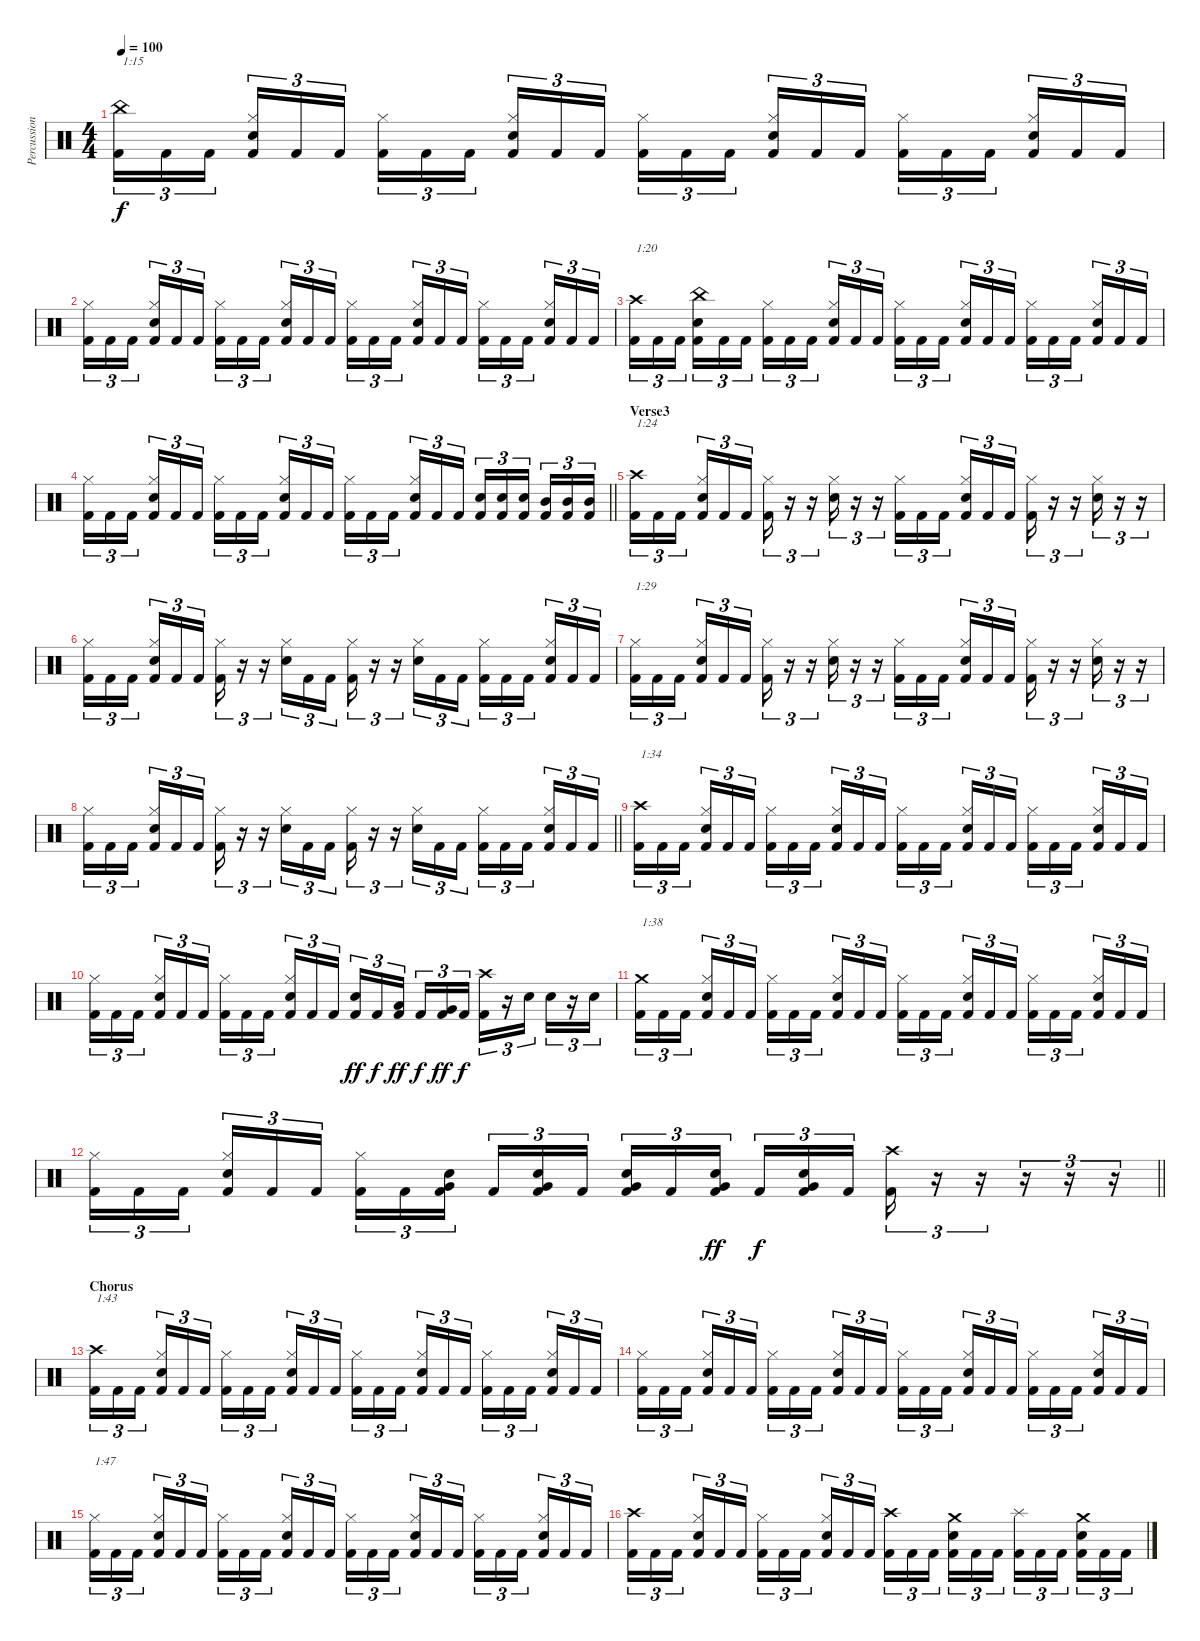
\track ("Percussion" "Percussion") {instrument percussion}
\staff {score}
\articulation defaults
\ts (4 4)
\tempo 100
\clef neutral
\ks c
("China (hit)" "Kick (hit) 2").16{tu (3 2) txt "1:15" dy f} "Kick (hit) 2".16{tu (3 2)} "Kick (hit) 2".16{tu (3 2) beam splitsecondary} ("Hi-Hat (closed)" "Snare (hit) 2" "Kick (hit) 2").16{tu (3 2)} "Kick (hit) 2".16{tu (3 2)} "Kick (hit) 2".16{tu (3 2)} ("Hi-Hat (closed)" "Kick (hit) 2").16{tu (3 2)} "Kick (hit) 2".16{tu (3 2)} "Kick (hit) 2".16{tu (3 2) beam splitsecondary} ("Hi-Hat (closed)" "Snare (hit) 2" "Kick (hit) 2").16{tu (3 2)} "Kick (hit) 2".16{tu (3 2)} "Kick (hit) 2".16{tu (3 2)} ("Hi-Hat (closed)" "Kick (hit) 2").16{tu (3 2)} "Kick (hit) 2".16{tu (3 2)} "Kick (hit) 2".16{tu (3 2) beam splitsecondary} ("Hi-Hat (closed)" "Snare (hit) 2" "Kick (hit) 2").16{tu (3 2)} "Kick (hit) 2".16{tu (3 2)} "Kick (hit) 2".16{tu (3 2)} ("Hi-Hat (closed)" "Kick (hit) 2").16{tu (3 2)} "Kick (hit) 2".16{tu (3 2)} "Kick (hit) 2".16{tu (3 2) beam splitsecondary} ("Hi-Hat (closed)" "Snare (hit) 2" "Kick (hit) 2").16{tu (3 2)} "Kick (hit) 2".16{tu (3 2)} "Kick (hit) 2".16{tu (3 2)} |
("Hi-Hat (closed)" "Kick (hit) 2").16{tu (3 2)} "Kick (hit) 2".16{tu (3 2)} "Kick (hit) 2".16{tu (3 2) beam splitsecondary} ("Hi-Hat (closed)" "Snare (hit) 2" "Kick (hit) 2").16{tu (3 2)} "Kick (hit) 2".16{tu (3 2)} "Kick (hit) 2".16{tu (3 2)} ("Hi-Hat (closed)" "Kick (hit) 2").16{tu (3 2)} "Kick (hit) 2".16{tu (3 2)} "Kick (hit) 2".16{tu (3 2) beam splitsecondary} ("Hi-Hat (closed)" "Snare (hit) 2" "Kick (hit) 2").16{tu (3 2)} "Kick (hit) 2".16{tu (3 2)} "Kick (hit) 2".16{tu (3 2)} ("Hi-Hat (closed)" "Kick (hit) 2").16{tu (3 2)} "Kick (hit) 2".16{tu (3 2)} "Kick (hit) 2".16{tu (3 2) beam splitsecondary} ("Hi-Hat (closed)" "Snare (hit) 2" "Kick (hit) 2").16{tu (3 2)} "Kick (hit) 2".16{tu (3 2)} "Kick (hit) 2".16{tu (3 2)} ("Hi-Hat (closed)" "Kick (hit) 2").16{tu (3 2)} "Kick (hit) 2".16{tu (3 2)} "Kick (hit) 2".16{tu (3 2) beam splitsecondary} ("Hi-Hat (closed)" "Snare (hit) 2" "Kick (hit) 2").16{tu (3 2)} "Kick (hit) 2".16{tu (3 2)} "Kick (hit) 2".16{tu (3 2)} |
("Crash high (hit)" "Kick (hit) 2").16{tu (3 2) txt "1:20"} "Kick (hit) 2".16{tu (3 2)} "Kick (hit) 2".16{tu (3 2) beam splitsecondary} ("China (hit)" "Snare (hit) 2" "Kick (hit) 2").16{tu (3 2)} "Kick (hit) 2".16{tu (3 2)} "Kick (hit) 2".16{tu (3 2)} ("Hi-Hat (closed)" "Kick (hit) 2").16{tu (3 2)} "Kick (hit) 2".16{tu (3 2)} "Kick (hit) 2".16{tu (3 2) beam splitsecondary} ("Hi-Hat (closed)" "Snare (hit) 2" "Kick (hit) 2").16{tu (3 2)} "Kick (hit) 2".16{tu (3 2)} "Kick (hit) 2".16{tu (3 2)} ("Hi-Hat (closed)" "Kick (hit) 2").16{tu (3 2)} "Kick (hit) 2".16{tu (3 2)} "Kick (hit) 2".16{tu (3 2) beam splitsecondary} ("Hi-Hat (closed)" "Snare (hit) 2" "Kick (hit) 2").16{tu (3 2)} "Kick (hit) 2".16{tu (3 2)} "Kick (hit) 2".16{tu (3 2)} ("Hi-Hat (closed)" "Kick (hit) 2").16{tu (3 2)} "Kick (hit) 2".16{tu (3 2)} "Kick (hit) 2".16{tu (3 2) beam splitsecondary} ("Hi-Hat (closed)" "Snare (hit) 2" "Kick (hit) 2").16{tu (3 2)} "Kick (hit) 2".16{tu (3 2)} "Kick (hit) 2".16{tu (3 2)} |
\barLineRight lightlight
("Hi-Hat (closed)" "Kick (hit) 2").16{tu (3 2)} "Kick (hit) 2".16{tu (3 2)} "Kick (hit) 2".16{tu (3 2) beam splitsecondary} ("Hi-Hat (closed)" "Snare (hit) 2" "Kick (hit) 2").16{tu (3 2)} "Kick (hit) 2".16{tu (3 2)} "Kick (hit) 2".16{tu (3 2)} ("Hi-Hat (closed)" "Kick (hit) 2").16{tu (3 2)} "Kick (hit) 2".16{tu (3 2)} "Kick (hit) 2".16{tu (3 2) beam splitsecondary} ("Hi-Hat (closed)" "Snare (hit) 2" "Kick (hit) 2").16{tu (3 2)} "Kick (hit) 2".16{tu (3 2)} "Kick (hit) 2".16{tu (3 2)} ("Hi-Hat (closed)" "Kick (hit) 2").16{tu (3 2)} "Kick (hit) 2".16{tu (3 2)} "Kick (hit) 2".16{tu (3 2) beam splitsecondary} ("Hi-Hat (closed)" "Snare (hit) 2" "Kick (hit) 2").16{tu (3 2)} "Kick (hit) 2".16{tu (3 2)} "Kick (hit) 2".16{tu (3 2)} ("Snare (hit) 2" "Kick (hit) 2").16{tu (3 2)} ("Snare (hit) 2" "Kick (hit) 2").16{tu (3 2)} ("Snare (hit) 2" "Kick (hit) 2").16{tu (3 2) beam splitsecondary} ("Mid Tom (hit)" "Kick (hit) 2").16{tu (3 2)} ("Mid Tom (hit)" "Kick (hit) 2").16{tu (3 2)} ("Mid Tom (hit)" "Kick (hit) 2").16{tu (3 2)} |
\section ("" "Verse3")
("Crash high (hit)" "Kick (hit) 2").16{tu (3 2) txt "1:24"} "Kick (hit) 2".16{tu (3 2)} "Kick (hit) 2".16{tu (3 2) beam splitsecondary} ("Hi-Hat (closed)" "Snare (hit) 2" "Kick (hit) 2").16{tu (3 2)} "Kick (hit) 2".16{tu (3 2)} "Kick (hit) 2".16{tu (3 2)} ("Hi-Hat (closed)" "Kick (hit) 2").16{tu (3 2)} r.16{tu (3 2)} r.16{tu (3 2)} ("Hi-Hat (closed)" "Snare (hit) 2").16{tu (3 2)} r.16{tu (3 2)} r.16{tu (3 2)} ("Hi-Hat (closed)" "Kick (hit) 2").16{tu (3 2)} "Kick (hit) 2".16{tu (3 2)} "Kick (hit) 2".16{tu (3 2) beam splitsecondary} ("Hi-Hat (closed)" "Snare (hit) 2" "Kick (hit) 2").16{tu (3 2)} "Kick (hit) 2".16{tu (3 2)} "Kick (hit) 2".16{tu (3 2)} ("Hi-Hat (closed)" "Kick (hit) 2").16{tu (3 2)} r.16{tu (3 2)} r.16{tu (3 2)} ("Hi-Hat (closed)" "Snare (hit) 2").16{tu (3 2)} r.16{tu (3 2)} r.16{tu (3 2)} |
("Hi-Hat (closed)" "Kick (hit) 2").16{tu (3 2)} "Kick (hit) 2".16{tu (3 2)} "Kick (hit) 2".16{tu (3 2) beam splitsecondary} ("Hi-Hat (closed)" "Snare (hit) 2" "Kick (hit) 2").16{tu (3 2)} "Kick (hit) 2".16{tu (3 2)} "Kick (hit) 2".16{tu (3 2)} ("Hi-Hat (closed)" "Kick (hit) 2").16{tu (3 2)} r.16{tu (3 2)} r.16{tu (3 2)} ("Hi-Hat (closed)" "Snare (hit) 2").16{tu (3 2)} "Kick (hit) 2".16{tu (3 2)} "Kick (hit) 2".16{tu (3 2)} ("Hi-Hat (closed)" "Kick (hit) 2").16{tu (3 2)} r.16{tu (3 2)} r.16{tu (3 2)} ("Hi-Hat (closed)" "Snare (hit) 2").16{tu (3 2)} "Kick (hit) 2".16{tu (3 2)} "Kick (hit) 2".16{tu (3 2)} ("Hi-Hat (closed)" "Kick (hit) 2").16{tu (3 2)} "Kick (hit) 2".16{tu (3 2)} "Kick (hit) 2".16{tu (3 2) beam splitsecondary} ("Hi-Hat (closed)" "Snare (hit) 2" "Kick (hit) 2").16{tu (3 2)} "Kick (hit) 2".16{tu (3 2)} "Kick (hit) 2".16{tu (3 2)} |
("Hi-Hat (closed)" "Kick (hit) 2").16{tu (3 2) txt "1:29"} "Kick (hit) 2".16{tu (3 2)} "Kick (hit) 2".16{tu (3 2) beam splitsecondary} ("Hi-Hat (closed)" "Snare (hit) 2" "Kick (hit) 2").16{tu (3 2)} "Kick (hit) 2".16{tu (3 2)} "Kick (hit) 2".16{tu (3 2)} ("Hi-Hat (closed)" "Kick (hit) 2").16{tu (3 2)} r.16{tu (3 2)} r.16{tu (3 2)} ("Hi-Hat (closed)" "Snare (hit) 2").16{tu (3 2)} r.16{tu (3 2)} r.16{tu (3 2)} ("Hi-Hat (closed)" "Kick (hit) 2").16{tu (3 2)} "Kick (hit) 2".16{tu (3 2)} "Kick (hit) 2".16{tu (3 2) beam splitsecondary} ("Hi-Hat (closed)" "Snare (hit) 2" "Kick (hit) 2").16{tu (3 2)} "Kick (hit) 2".16{tu (3 2)} "Kick (hit) 2".16{tu (3 2)} ("Hi-Hat (closed)" "Kick (hit) 2").16{tu (3 2)} r.16{tu (3 2)} r.16{tu (3 2)} ("Hi-Hat (closed)" "Snare (hit) 2").16{tu (3 2)} r.16{tu (3 2)} r.16{tu (3 2)} |
\barLineRight lightlight
("Hi-Hat (closed)" "Kick (hit) 2").16{tu (3 2)} "Kick (hit) 2".16{tu (3 2)} "Kick (hit) 2".16{tu (3 2) beam splitsecondary} ("Hi-Hat (closed)" "Snare (hit) 2" "Kick (hit) 2").16{tu (3 2)} "Kick (hit) 2".16{tu (3 2)} "Kick (hit) 2".16{tu (3 2)} ("Hi-Hat (closed)" "Kick (hit) 2").16{tu (3 2)} r.16{tu (3 2)} r.16{tu (3 2)} ("Hi-Hat (closed)" "Snare (hit) 2").16{tu (3 2)} "Kick (hit) 2".16{tu (3 2)} "Kick (hit) 2".16{tu (3 2)} ("Hi-Hat (closed)" "Kick (hit) 2").16{tu (3 2)} r.16{tu (3 2)} r.16{tu (3 2)} ("Hi-Hat (closed)" "Snare (hit) 2").16{tu (3 2)} "Kick (hit) 2".16{tu (3 2)} "Kick (hit) 2".16{tu (3 2)} ("Hi-Hat (closed)" "Kick (hit) 2").16{tu (3 2)} "Kick (hit) 2".16{tu (3 2)} "Kick (hit) 2".16{tu (3 2) beam splitsecondary} ("Hi-Hat (closed)" "Snare (hit) 2" "Kick (hit) 2").16{tu (3 2)} "Kick (hit) 2".16{tu (3 2)} "Kick (hit) 2".16{tu (3 2)} |
("Crash high (hit)" "Kick (hit) 2").16{tu (3 2) txt "1:34"} "Kick (hit) 2".16{tu (3 2)} "Kick (hit) 2".16{tu (3 2) beam splitsecondary} ("Hi-Hat (closed)" "Snare (hit) 2" "Kick (hit) 2").16{tu (3 2)} "Kick (hit) 2".16{tu (3 2)} "Kick (hit) 2".16{tu (3 2)} ("Hi-Hat (closed)" "Kick (hit) 2").16{tu (3 2)} "Kick (hit) 2".16{tu (3 2)} "Kick (hit) 2".16{tu (3 2) beam splitsecondary} ("Hi-Hat (closed)" "Snare (hit) 2" "Kick (hit) 2").16{tu (3 2)} "Kick (hit) 2".16{tu (3 2)} "Kick (hit) 2".16{tu (3 2)} ("Hi-Hat (closed)" "Kick (hit) 2").16{tu (3 2)} "Kick (hit) 2".16{tu (3 2)} "Kick (hit) 2".16{tu (3 2) beam splitsecondary} ("Hi-Hat (closed)" "Snare (hit) 2" "Kick (hit) 2").16{tu (3 2)} "Kick (hit) 2".16{tu (3 2)} "Kick (hit) 2".16{tu (3 2)} ("Hi-Hat (closed)" "Kick (hit) 2").16{tu (3 2)} "Kick (hit) 2".16{tu (3 2)} "Kick (hit) 2".16{tu (3 2) beam splitsecondary} ("Hi-Hat (closed)" "Snare (hit) 2" "Kick (hit) 2").16{tu (3 2)} "Kick (hit) 2".16{tu (3 2)} "Kick (hit) 2".16{tu (3 2)} |
("Hi-Hat (closed)" "Kick (hit) 2").16{tu (3 2)} "Kick (hit) 2".16{tu (3 2)} "Kick (hit) 2".16{tu (3 2) beam splitsecondary} ("Hi-Hat (closed)" "Snare (hit) 2" "Kick (hit) 2").16{tu (3 2)} "Kick (hit) 2".16{tu (3 2)} "Kick (hit) 2".16{tu (3 2)} ("Hi-Hat (closed)" "Kick (hit) 2").16{tu (3 2)} "Kick (hit) 2".16{tu (3 2)} "Kick (hit) 2".16{tu (3 2) beam splitsecondary} ("Hi-Hat (closed)" "Snare (hit) 2" "Kick (hit) 2").16{tu (3 2)} "Kick (hit) 2".16{tu (3 2)} "Kick (hit) 2".16{tu (3 2)} ("Snare (hit) 2" "Kick (hit) 2").16{tu (3 2) dy ff} "Kick (hit) 2".16{tu (3 2) dy f} ("Low Tom (hit)" "Kick (hit) 2").16{tu (3 2) dy ff beam splitsecondary} "Kick (hit) 2".16{tu (3 2) dy f} ("Very Low Tom (hit)" "Kick (hit) 2").16{tu (3 2) dy ff} "Kick (hit) 2".16{tu (3 2) dy f} ("Crash high (hit)" "Kick (hit) 2").16{tu (3 2)} r.16{tu (3 2)} "Snare (hit) 2".16{tu (3 2)} "Snare (hit) 2".16{tu (3 2)} r.16{tu (3 2)} "Snare (hit) 2".16{tu (3 2)} |
("Crash medium (hit)" "Kick (hit) 2").16{tu (3 2) txt "1:38"} "Kick (hit) 2".16{tu (3 2)} "Kick (hit) 2".16{tu (3 2) beam splitsecondary} ("Hi-Hat (closed)" "Snare (hit) 2" "Kick (hit) 2").16{tu (3 2)} "Kick (hit) 2".16{tu (3 2)} "Kick (hit) 2".16{tu (3 2)} ("Hi-Hat (closed)" "Kick (hit) 2").16{tu (3 2)} "Kick (hit) 2".16{tu (3 2)} "Kick (hit) 2".16{tu (3 2) beam splitsecondary} ("Hi-Hat (closed)" "Snare (hit) 2" "Kick (hit) 2").16{tu (3 2)} "Kick (hit) 2".16{tu (3 2)} "Kick (hit) 2".16{tu (3 2)} ("Hi-Hat (closed)" "Kick (hit) 2").16{tu (3 2)} "Kick (hit) 2".16{tu (3 2)} "Kick (hit) 2".16{tu (3 2) beam splitsecondary} ("Hi-Hat (closed)" "Snare (hit) 2" "Kick (hit) 2").16{tu (3 2)} "Kick (hit) 2".16{tu (3 2)} "Kick (hit) 2".16{tu (3 2)} ("Hi-Hat (closed)" "Kick (hit) 2").16{tu (3 2)} "Kick (hit) 2".16{tu (3 2)} "Kick (hit) 2".16{tu (3 2) beam splitsecondary} ("Hi-Hat (closed)" "Snare (hit) 2" "Kick (hit) 2").16{tu (3 2)} "Kick (hit) 2".16{tu (3 2)} "Kick (hit) 2".16{tu (3 2)} |
\barLineRight lightlight
("Hi-Hat (closed)" "Kick (hit) 2").16{tu (3 2)} "Kick (hit) 2".16{tu (3 2)} "Kick (hit) 2".16{tu (3 2) beam splitsecondary} ("Hi-Hat (closed)" "Snare (hit) 2" "Kick (hit) 2").16{tu (3 2)} "Kick (hit) 2".16{tu (3 2)} "Kick (hit) 2".16{tu (3 2)} ("Hi-Hat (closed)" "Kick (hit) 2").16{tu (3 2)} "Kick (hit) 2".16{tu (3 2)} ("Very Low Tom (hit)" "Snare (hit) 2" "Kick (hit) 2").16{tu (3 2) beam splitsecondary} "Kick (hit) 2".16{tu (3 2)} ("Very Low Tom (hit)" "Snare (hit) 2" "Kick (hit) 2").16{tu (3 2)} "Kick (hit) 2".16{tu (3 2)} ("Very Low Tom (hit)" "Snare (hit) 2" "Kick (hit) 2").16{tu (3 2)} "Kick (hit) 2".16{tu (3 2)} ("Very Low Tom (hit)" "Snare (hit) 2" "Kick (hit) 2").16{tu (3 2) dy ff beam splitsecondary} "Kick (hit) 2".16{tu (3 2) dy f} ("Very Low Tom (hit)" "Snare (hit) 2" "Kick (hit) 2").16{tu (3 2)} "Kick (hit) 2".16{tu (3 2)} ("Crash high (hit)" "Kick (hit) 2").16{tu (3 2)} r.16{tu (3 2)} r.16{tu (3 2)} r.16{tu (3 2)} r.16{tu (3 2)} r.16{tu (3 2)} |
\section ("" "Chorus")
("Crash high (hit)" "Kick (hit) 2").16{tu (3 2) txt "1:43"} "Kick (hit) 2".16{tu (3 2)} "Kick (hit) 2".16{tu (3 2) beam splitsecondary} ("Hi-Hat (closed)" "Snare (hit) 2" "Kick (hit) 2").16{tu (3 2)} "Kick (hit) 2".16{tu (3 2)} "Kick (hit) 2".16{tu (3 2)} ("Hi-Hat (closed)" "Kick (hit) 2").16{tu (3 2)} "Kick (hit) 2".16{tu (3 2)} "Kick (hit) 2".16{tu (3 2) beam splitsecondary} ("Hi-Hat (closed)" "Snare (hit) 2" "Kick (hit) 2").16{tu (3 2)} "Kick (hit) 2".16{tu (3 2)} "Kick (hit) 2".16{tu (3 2)} ("Hi-Hat (closed)" "Kick (hit) 2").16{tu (3 2)} "Kick (hit) 2".16{tu (3 2)} "Kick (hit) 2".16{tu (3 2) beam splitsecondary} ("Hi-Hat (closed)" "Snare (hit) 2" "Kick (hit) 2").16{tu (3 2)} "Kick (hit) 2".16{tu (3 2)} "Kick (hit) 2".16{tu (3 2)} ("Hi-Hat (closed)" "Kick (hit) 2").16{tu (3 2)} "Kick (hit) 2".16{tu (3 2)} "Kick (hit) 2".16{tu (3 2) beam splitsecondary} ("Hi-Hat (closed)" "Snare (hit) 2" "Kick (hit) 2").16{tu (3 2)} "Kick (hit) 2".16{tu (3 2)} "Kick (hit) 2".16{tu (3 2)} |
("Hi-Hat (closed)" "Kick (hit) 2").16{tu (3 2)} "Kick (hit) 2".16{tu (3 2)} "Kick (hit) 2".16{tu (3 2) beam splitsecondary} ("Hi-Hat (closed)" "Snare (hit) 2" "Kick (hit) 2").16{tu (3 2)} "Kick (hit) 2".16{tu (3 2)} "Kick (hit) 2".16{tu (3 2)} ("Hi-Hat (closed)" "Kick (hit) 2").16{tu (3 2)} "Kick (hit) 2".16{tu (3 2)} "Kick (hit) 2".16{tu (3 2) beam splitsecondary} ("Hi-Hat (closed)" "Snare (hit) 2" "Kick (hit) 2").16{tu (3 2)} "Kick (hit) 2".16{tu (3 2)} "Kick (hit) 2".16{tu (3 2)} ("Hi-Hat (closed)" "Kick (hit) 2").16{tu (3 2)} "Kick (hit) 2".16{tu (3 2)} "Kick (hit) 2".16{tu (3 2) beam splitsecondary} ("Hi-Hat (closed)" "Snare (hit) 2" "Kick (hit) 2").16{tu (3 2)} "Kick (hit) 2".16{tu (3 2)} "Kick (hit) 2".16{tu (3 2)} ("Hi-Hat (closed)" "Kick (hit) 2").16{tu (3 2)} "Kick (hit) 2".16{tu (3 2)} "Kick (hit) 2".16{tu (3 2) beam splitsecondary} ("Hi-Hat (closed)" "Snare (hit) 2" "Kick (hit) 2").16{tu (3 2)} "Kick (hit) 2".16{tu (3 2)} "Kick (hit) 2".16{tu (3 2)} |
("Hi-Hat (closed)" "Kick (hit) 2").16{tu (3 2) txt "1:47"} "Kick (hit) 2".16{tu (3 2)} "Kick (hit) 2".16{tu (3 2) beam splitsecondary} ("Hi-Hat (closed)" "Snare (hit) 2" "Kick (hit) 2").16{tu (3 2)} "Kick (hit) 2".16{tu (3 2)} "Kick (hit) 2".16{tu (3 2)} ("Hi-Hat (closed)" "Kick (hit) 2").16{tu (3 2)} "Kick (hit) 2".16{tu (3 2)} "Kick (hit) 2".16{tu (3 2) beam splitsecondary} ("Hi-Hat (closed)" "Snare (hit) 2" "Kick (hit) 2").16{tu (3 2)} "Kick (hit) 2".16{tu (3 2)} "Kick (hit) 2".16{tu (3 2)} ("Hi-Hat (closed)" "Kick (hit) 2").16{tu (3 2)} "Kick (hit) 2".16{tu (3 2)} "Kick (hit) 2".16{tu (3 2) beam splitsecondary} ("Hi-Hat (closed)" "Snare (hit) 2" "Kick (hit) 2").16{tu (3 2)} "Kick (hit) 2".16{tu (3 2)} "Kick (hit) 2".16{tu (3 2)} ("Hi-Hat (closed)" "Kick (hit) 2").16{tu (3 2)} "Kick (hit) 2".16{tu (3 2)} "Kick (hit) 2".16{tu (3 2) beam splitsecondary} ("Hi-Hat (closed)" "Snare (hit) 2" "Kick (hit) 2").16{tu (3 2)} "Kick (hit) 2".16{tu (3 2)} "Kick (hit) 2".16{tu (3 2)} |
("Crash high (hit)" "Kick (hit) 2").16{tu (3 2)} "Kick (hit) 2".16{tu (3 2)} "Kick (hit) 2".16{tu (3 2) beam splitsecondary} ("Hi-Hat (closed)" "Snare (hit) 2" "Kick (hit) 2").16{tu (3 2)} "Kick (hit) 2".16{tu (3 2)} "Kick (hit) 2".16{tu (3 2)} ("Hi-Hat (closed)" "Kick (hit) 2").16{tu (3 2)} "Kick (hit) 2".16{tu (3 2)} "Kick (hit) 2".16{tu (3 2) beam splitsecondary} ("Hi-Hat (closed)" "Snare (hit) 2" "Kick (hit) 2").16{tu (3 2)} "Kick (hit) 2".16{tu (3 2)} "Kick (hit) 2".16{tu (3 2)} ("Crash high (hit)" "Kick (hit) 2").16{tu (3 2)} "Kick (hit) 2".16{tu (3 2)} "Kick (hit) 2".16{tu (3 2) beam splitsecondary} ("Crash medium (hit)" "Snare (hit) 2" "Kick (hit) 2").16{tu (3 2)} "Kick (hit) 2".16{tu (3 2)} "Kick (hit) 2".16{tu (3 2)} ("Splash (hit)" "Kick (hit) 2").16{tu (3 2)} "Kick (hit) 2".16{tu (3 2)} "Kick (hit) 2".16{tu (3 2) beam splitsecondary} ("Crash medium (hit)" "Snare (hit) 2" "Kick (hit) 2").16{tu (3 2)} "Kick (hit) 2".16{tu (3 2)} "Kick (hit) 2".16{tu (3 2)}
